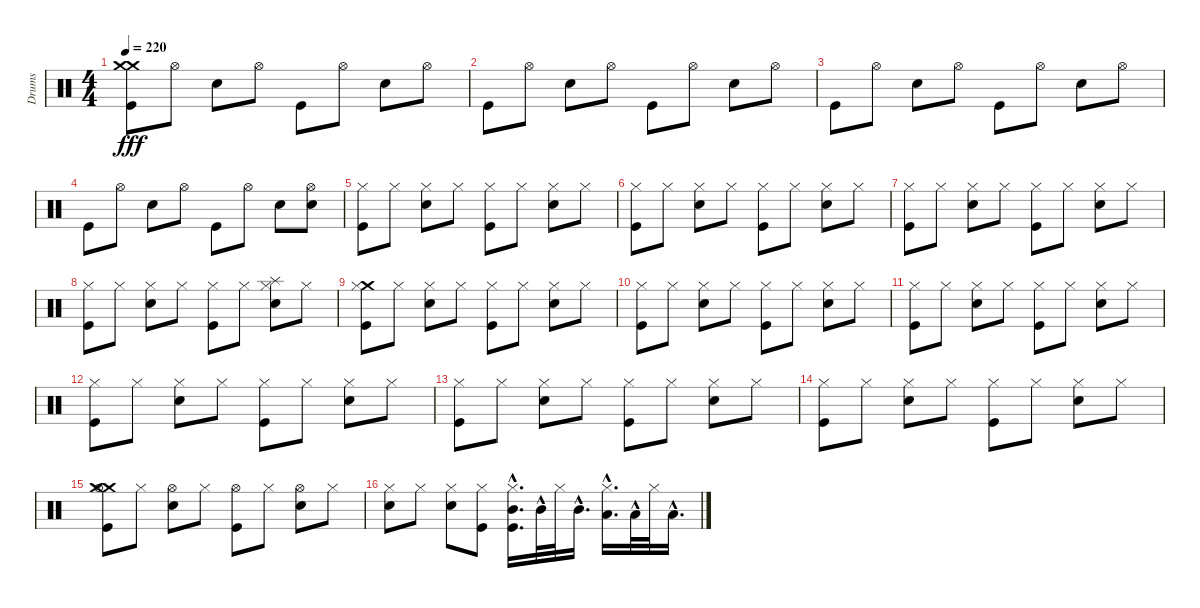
\track ("Drums" "Drums") {instrument percussion}
\staff {score}
\articulation defaults
\ts (4 4)
\tempo 220
\clef neutral
\ks c
("Crash medium (hit)" "Crash medium (hit)" "Kick (hit)").8{dy fff} "Hi-Hat (open)".8 "Snare (hit) 2".8 "Hi-Hat (open)".8 "Kick (hit)".8 "Hi-Hat (open)".8 "Snare (hit) 2".8 "Hi-Hat (open)".8 |
"Kick (hit)".8 "Hi-Hat (open)".8 "Snare (hit) 2".8 "Hi-Hat (open)".8 "Kick (hit)".8 "Hi-Hat (open)".8 "Snare (hit) 2".8 "Hi-Hat (open)".8 |
"Kick (hit)".8 "Hi-Hat (open)".8 "Snare (hit) 2".8 "Hi-Hat (open)".8 "Kick (hit)".8 "Hi-Hat (open)".8 "Snare (hit) 2".8 "Hi-Hat (open)".8 |
"Kick (hit)".8 "Hi-Hat (open)".8 "Snare (hit) 2".8 "Hi-Hat (open)".8 "Kick (hit)".8 "Hi-Hat (open)".8 "Snare (hit) 2".8 ("Snare (hit) 2" "Hi-Hat (open)").8 |
("Hi-Hat (closed)" "Kick (hit)").8 "Hi-Hat (closed)".8 ("Hi-Hat (closed)" "Snare (hit) 2").8 "Hi-Hat (closed)".8 ("Hi-Hat (closed)" "Kick (hit)").8 "Hi-Hat (closed)".8 ("Hi-Hat (closed)" "Snare (hit) 2").8 "Hi-Hat (closed)".8 |
("Hi-Hat (closed)" "Kick (hit)").8 "Hi-Hat (closed)".8 ("Hi-Hat (closed)" "Snare (hit) 2").8 "Hi-Hat (closed)".8 ("Hi-Hat (closed)" "Kick (hit)").8 "Hi-Hat (closed)".8 ("Hi-Hat (closed)" "Snare (hit) 2").8 "Hi-Hat (closed)".8 |
("Hi-Hat (closed)" "Kick (hit)").8 "Hi-Hat (closed)".8 ("Hi-Hat (closed)" "Snare (hit) 2").8 "Hi-Hat (closed)".8 ("Hi-Hat (closed)" "Kick (hit)").8 "Hi-Hat (closed)".8 ("Hi-Hat (closed)" "Snare (hit) 2").8 "Hi-Hat (closed)".8 |
("Hi-Hat (closed)" "Kick (hit)").8 "Hi-Hat (closed)".8 ("Hi-Hat (closed)" "Snare (hit) 2").8 "Hi-Hat (closed)".8 ("Hi-Hat (closed)" "Kick (hit)").8 "Hi-Hat (closed)".8 ("Splash (hit)" "Hi-Hat (closed)" "Snare (hit) 2").8 "Hi-Hat (closed)".8 |
("Crash medium (hit)" "Hi-Hat (closed)" "Kick (hit)").8 "Hi-Hat (closed)".8 ("Hi-Hat (closed)" "Snare (hit) 2").8 "Hi-Hat (closed)".8 ("Hi-Hat (closed)" "Kick (hit)").8 "Hi-Hat (closed)".8 ("Hi-Hat (closed)" "Snare (hit) 2").8 "Hi-Hat (closed)".8 |
("Hi-Hat (closed)" "Kick (hit)").8 "Hi-Hat (closed)".8 ("Hi-Hat (closed)" "Snare (hit) 2").8 "Hi-Hat (closed)".8 ("Hi-Hat (closed)" "Kick (hit)").8 "Hi-Hat (closed)".8 ("Hi-Hat (closed)" "Snare (hit) 2").8 "Hi-Hat (closed)".8 |
("Hi-Hat (closed)" "Kick (hit)").8 "Hi-Hat (closed)".8 ("Hi-Hat (closed)" "Snare (hit) 2").8 "Hi-Hat (closed)".8 ("Hi-Hat (closed)" "Kick (hit)").8 "Hi-Hat (closed)".8 ("Hi-Hat (closed)" "Snare (hit) 2").8 "Hi-Hat (closed)".8 |
("Hi-Hat (closed)" "Kick (hit)").8 "Hi-Hat (closed)".8 ("Hi-Hat (closed)" "Snare (hit) 2").8 "Hi-Hat (closed)".8 ("Hi-Hat (closed)" "Kick (hit)").8 "Hi-Hat (closed)".8 ("Hi-Hat (closed)" "Snare (hit) 2").8 "Hi-Hat (closed)".8 |
("Hi-Hat (closed)" "Kick (hit)").8 "Hi-Hat (closed)".8 ("Hi-Hat (closed)" "Snare (hit) 2").8 "Hi-Hat (closed)".8 ("Hi-Hat (closed)" "Kick (hit)").8 "Hi-Hat (closed)".8 ("Hi-Hat (closed)" "Snare (hit) 2").8 "Hi-Hat (closed)".8 |
("Hi-Hat (closed)" "Kick (hit)").8 "Hi-Hat (closed)".8 ("Hi-Hat (closed)" "Snare (hit) 2").8 "Hi-Hat (closed)".8 ("Hi-Hat (closed)" "Kick (hit)").8 "Hi-Hat (closed)".8 ("Hi-Hat (closed)" "Snare (hit) 2").8 "Hi-Hat (closed)".8 |
("Crash medium (hit)" "Crash medium (hit)" "Hi-Hat (open)" "Kick (hit)").8 "Hi-Hat (closed)".8 ("Hi-Hat (open)" "Snare (hit) 2").8 "Hi-Hat (closed)".8 ("Hi-Hat (open)" "Kick (hit)").8 "Hi-Hat (closed)".8 ("Hi-Hat (open)" "Snare (hit) 2").8 "Hi-Hat (closed)".8 |
("Snare (hit) 2" "Hi-Hat (closed)").8 "Hi-Hat (closed)".8 ("Snare (hit) 2" "Hi-Hat (closed)").8 ("Kick (hit)" "Hi-Hat (closed)").8 ("Kick (hit)" "Mid Tom (hit)"{hac} "Hi-Hat (closed)").16{d} "Mid Tom (hit)"{hac}.32 "Hi-Hat (closed)".32 "Mid Tom (hit)"{hac}.16{d} ("Low Floor Tom (hit)"{hac} "Hi-Hat (closed)").16{d} "Low Floor Tom (hit)"{hac}.32 "Hi-Hat (closed)".32 "Low Floor Tom (hit)"{hac}.16{d}
